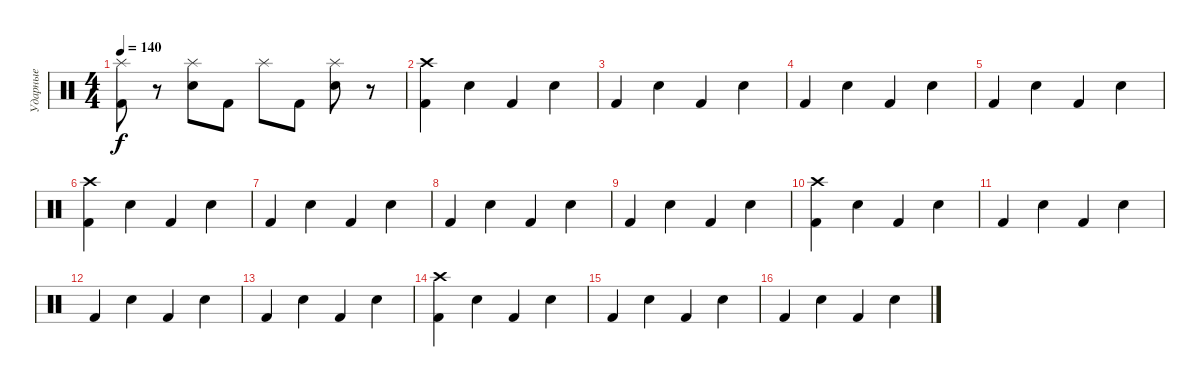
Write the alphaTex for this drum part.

\track ("Ударные" "Ударные") {instrument percussion}
\staff {score}
\articulation defaults
\ts (4 4)
\tempo 140
\clef neutral
\ks c
("Splash (hit)" "Kick (hit) 2").8{dy f} r.8 ("Splash (hit)" "Electric Snare (hit)").8 "Kick (hit) 2".8 "Splash (hit)".8 "Kick (hit) 2".8 ("Splash (hit)" "Electric Snare (hit)").8 r.8 |
("Crash high (hit)" "Kick (hit) 2").4 "Electric Snare (hit)".4 "Kick (hit) 2".4 "Electric Snare (hit)".4 |
"Kick (hit) 2".4 "Electric Snare (hit)".4 "Kick (hit) 2".4 "Electric Snare (hit)".4 |
"Kick (hit) 2".4 "Electric Snare (hit)".4 "Kick (hit) 2".4 "Electric Snare (hit)".4 |
"Kick (hit) 2".4 "Electric Snare (hit)".4 "Kick (hit) 2".4 "Electric Snare (hit)".4 |
("Crash high (hit)" "Kick (hit) 2").4 "Electric Snare (hit)".4 "Kick (hit) 2".4 "Electric Snare (hit)".4 |
"Kick (hit) 2".4 "Electric Snare (hit)".4 "Kick (hit) 2".4 "Electric Snare (hit)".4 |
"Kick (hit) 2".4 "Electric Snare (hit)".4 "Kick (hit) 2".4 "Electric Snare (hit)".4 |
"Kick (hit) 2".4 "Electric Snare (hit)".4 "Kick (hit) 2".4 "Electric Snare (hit)".4 |
("Crash high (hit)" "Kick (hit) 2").4 "Electric Snare (hit)".4 "Kick (hit) 2".4 "Electric Snare (hit)".4 |
"Kick (hit) 2".4 "Electric Snare (hit)".4 "Kick (hit) 2".4 "Electric Snare (hit)".4 |
"Kick (hit) 2".4 "Electric Snare (hit)".4 "Kick (hit) 2".4 "Electric Snare (hit)".4 |
"Kick (hit) 2".4 "Electric Snare (hit)".4 "Kick (hit) 2".4 "Electric Snare (hit)".4 |
("Crash high (hit)" "Kick (hit) 2").4 "Electric Snare (hit)".4 "Kick (hit) 2".4 "Electric Snare (hit)".4 |
"Kick (hit) 2".4 "Electric Snare (hit)".4 "Kick (hit) 2".4 "Electric Snare (hit)".4 |
"Kick (hit) 2".4 "Electric Snare (hit)".4 "Kick (hit) 2".4 "Electric Snare (hit)".4
